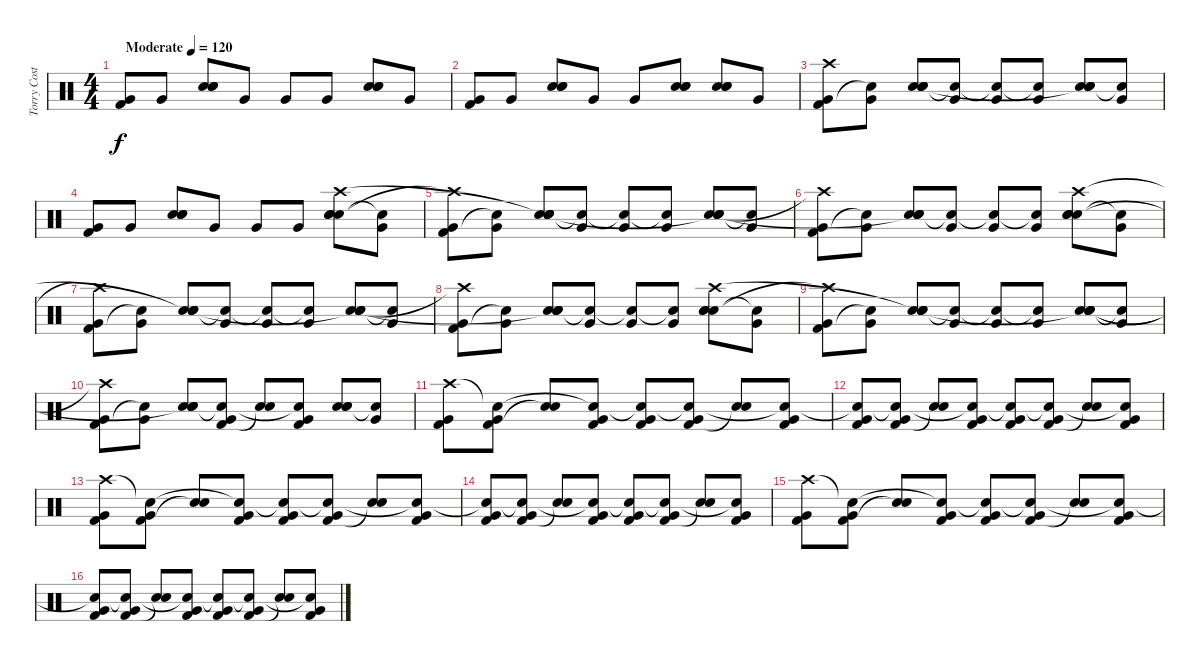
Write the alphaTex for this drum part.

\track ("Torry Costellano" "Torry Cost") {instrument percussion}
\staff {score}
\articulation defaults
\ts (4 4)
\tempo (120 "Moderate")
\clef neutral
\ks c
("Very Low Tom (hit)" "Kick (hit) 2").8{dy f} "Very Low Tom (hit)".8 ("Hand Clap (hit)" "Hand Clap (hit)" "Electric Snare (hit)").8 "Very Low Tom (hit)".8 "Very Low Tom (hit)".8 "Very Low Tom (hit)".8 ("Hand Clap (hit)" "Hand Clap (hit)" "Electric Snare (hit)").8 "Very Low Tom (hit)".8 |
("Very Low Tom (hit)" "Kick (hit) 2").8 "Very Low Tom (hit)".8 ("Hand Clap (hit)" "Hand Clap (hit)" "Electric Snare (hit)").8 "Very Low Tom (hit)".8 "Very Low Tom (hit)".8 ("Hand Clap (hit)" "Hand Clap (hit)" "Electric Snare (hit)").8 ("Hand Clap (hit)" "Hand Clap (hit)" "Electric Snare (hit)").8 "Very Low Tom (hit)".8 |
("Very Low Tom (hit)" "Kick (hit) 2" "Crash high (hit)").8 ("Very Low Tom (hit)" "Snare (hit)"{t}).8 ("Hand Clap (hit)" "Hand Clap (hit)" "Electric Snare (hit)" "Snare (hit)").8 ("Very Low Tom (hit)" "Snare (hit)"{t}).8 ("Very Low Tom (hit)" "Snare (hit)"{t}).8 ("Very Low Tom (hit)" "Snare (hit)"{t}).8 ("Hand Clap (hit)" "Hand Clap (hit)" "Electric Snare (hit)" "Snare (hit)"{t}).8 ("Very Low Tom (hit)" "Snare (hit)"{t}).8 |
("Very Low Tom (hit)" "Kick (hit) 2").8 "Very Low Tom (hit)".8 ("Hand Clap (hit)" "Hand Clap (hit)" "Electric Snare (hit)").8 "Very Low Tom (hit)".8 "Very Low Tom (hit)".8 "Very Low Tom (hit)".8 ("Hand Clap (hit)" "Hand Clap (hit)" "Electric Snare (hit)" "Crash high (hit)").8 ("Very Low Tom (hit)" "Snare (hit)"{t}).8 |
("Very Low Tom (hit)" "Kick (hit) 2" "Crash high (hit)"{t}).8 ("Very Low Tom (hit)" "Snare (hit)"{t}).8 ("Hand Clap (hit)" "Hand Clap (hit)" "Electric Snare (hit)" "Snare (hit)"{t}).8 ("Very Low Tom (hit)" "Snare (hit)"{t}).8 ("Very Low Tom (hit)" "Snare (hit)"{t}).8 ("Very Low Tom (hit)" "Snare (hit)"{t}).8 ("Hand Clap (hit)" "Hand Clap (hit)" "Electric Snare (hit)" "Snare (hit)"{t}).8 ("Very Low Tom (hit)" "Snare (hit)"{t}).8 |
("Very Low Tom (hit)" "Kick (hit) 2" "Crash high (hit)"{t}).8 ("Very Low Tom (hit)" "Snare (hit)"{t}).8 ("Hand Clap (hit)" "Hand Clap (hit)" "Electric Snare (hit)" "Snare (hit)"{t}).8 ("Very Low Tom (hit)" "Snare (hit)"{t}).8 ("Very Low Tom (hit)" "Snare (hit)"{t}).8 ("Very Low Tom (hit)" "Snare (hit)"{t}).8 ("Hand Clap (hit)" "Hand Clap (hit)" "Electric Snare (hit)" "Crash high (hit)").8 ("Very Low Tom (hit)" "Snare (hit)"{t}).8 |
("Very Low Tom (hit)" "Kick (hit) 2" "Crash high (hit)"{t}).8 ("Very Low Tom (hit)" "Snare (hit)"{t}).8 ("Hand Clap (hit)" "Hand Clap (hit)" "Electric Snare (hit)" "Snare (hit)"{t}).8 ("Very Low Tom (hit)" "Snare (hit)"{t}).8 ("Very Low Tom (hit)" "Snare (hit)"{t}).8 ("Very Low Tom (hit)" "Snare (hit)"{t}).8 ("Hand Clap (hit)" "Hand Clap (hit)" "Electric Snare (hit)" "Snare (hit)"{t}).8 ("Very Low Tom (hit)" "Snare (hit)"{t}).8 |
("Very Low Tom (hit)" "Kick (hit) 2" "Crash high (hit)"{t}).8 ("Very Low Tom (hit)" "Snare (hit)"{t}).8 ("Hand Clap (hit)" "Hand Clap (hit)" "Electric Snare (hit)" "Snare (hit)"{t}).8 ("Very Low Tom (hit)" "Snare (hit)"{t}).8 ("Very Low Tom (hit)" "Snare (hit)"{t}).8 ("Very Low Tom (hit)" "Snare (hit)"{t}).8 ("Hand Clap (hit)" "Hand Clap (hit)" "Electric Snare (hit)" "Crash high (hit)").8 ("Very Low Tom (hit)" "Snare (hit)"{t}).8 |
("Very Low Tom (hit)" "Kick (hit) 2" "Crash high (hit)"{t}).8 ("Very Low Tom (hit)" "Snare (hit)"{t}).8 ("Hand Clap (hit)" "Hand Clap (hit)" "Electric Snare (hit)" "Snare (hit)"{t}).8 ("Very Low Tom (hit)" "Snare (hit)"{t}).8 ("Very Low Tom (hit)" "Snare (hit)"{t}).8 ("Very Low Tom (hit)" "Snare (hit)"{t}).8 ("Hand Clap (hit)" "Hand Clap (hit)" "Electric Snare (hit)" "Snare (hit)"{t}).8 ("Very Low Tom (hit)" "Snare (hit)"{t}).8 |
("Very Low Tom (hit)" "Kick (hit) 2" "Crash high (hit)"{t}).8 ("Very Low Tom (hit)" "Snare (hit)"{t}).8 ("Hand Clap (hit)" "Hand Clap (hit)" "Electric Snare (hit)" "Snare (hit)"{t}).8 ("Very Low Tom (hit)" "Kick (hit) 2" "Snare (hit)"{t}).8 ("Electric Snare (hit)" "Snare (hit)"{t}).8 ("Very Low Tom (hit)" "Kick (hit) 2" "Snare (hit)"{t}).8 ("Hand Clap (hit)" "Hand Clap (hit)" "Electric Snare (hit)").8 ("Very Low Tom (hit)" "Snare (hit)"{t}).8 |
("Very Low Tom (hit)" "Kick (hit) 2" "Crash high (hit)").8 ("Very Low Tom (hit)" "Kick (hit) 2" "Snare (hit)"{t}).8 ("Electric Snare (hit)" "Snare (hit)"{t}).8 ("Very Low Tom (hit)" "Kick (hit) 2" "Snare (hit)"{t}).8 ("Very Low Tom (hit)" "Kick (hit) 2" "Snare (hit)"{t}).8 ("Very Low Tom (hit)" "Kick (hit) 2" "Snare (hit)"{t}).8 ("Electric Snare (hit)" "Snare (hit)"{t}).8 ("Very Low Tom (hit)" "Kick (hit) 2" "Snare (hit)"{t}).8 |
("Very Low Tom (hit)" "Kick (hit) 2" "Snare (hit)"{t}).8 ("Very Low Tom (hit)" "Kick (hit) 2" "Snare (hit)"{t}).8 ("Electric Snare (hit)" "Snare (hit)"{t}).8 ("Very Low Tom (hit)" "Kick (hit) 2" "Snare (hit)"{t}).8 ("Very Low Tom (hit)" "Kick (hit) 2" "Snare (hit)"{t}).8 ("Very Low Tom (hit)" "Kick (hit) 2" "Snare (hit)"{t}).8 ("Electric Snare (hit)" "Snare (hit)"{t}).8 ("Very Low Tom (hit)" "Kick (hit) 2" "Snare (hit)"{t}).8 |
("Very Low Tom (hit)" "Kick (hit) 2" "Crash high (hit)").8 ("Very Low Tom (hit)" "Kick (hit) 2" "Snare (hit)"{t}).8 ("Electric Snare (hit)" "Snare (hit)"{t}).8 ("Very Low Tom (hit)" "Kick (hit) 2" "Snare (hit)"{t}).8 ("Very Low Tom (hit)" "Kick (hit) 2" "Snare (hit)"{t}).8 ("Very Low Tom (hit)" "Kick (hit) 2" "Snare (hit)"{t}).8 ("Electric Snare (hit)" "Snare (hit)"{t}).8 ("Very Low Tom (hit)" "Kick (hit) 2" "Snare (hit)"{t}).8 |
("Very Low Tom (hit)" "Kick (hit) 2" "Snare (hit)"{t}).8 ("Very Low Tom (hit)" "Kick (hit) 2" "Snare (hit)"{t}).8 ("Electric Snare (hit)" "Snare (hit)"{t}).8 ("Very Low Tom (hit)" "Kick (hit) 2" "Snare (hit)"{t}).8 ("Very Low Tom (hit)" "Kick (hit) 2" "Snare (hit)"{t}).8 ("Very Low Tom (hit)" "Kick (hit) 2" "Snare (hit)"{t}).8 ("Electric Snare (hit)" "Snare (hit)"{t}).8 ("Very Low Tom (hit)" "Kick (hit) 2" "Snare (hit)"{t}).8 |
("Very Low Tom (hit)" "Kick (hit) 2" "Crash high (hit)").8 ("Very Low Tom (hit)" "Kick (hit) 2" "Snare (hit)"{t}).8 ("Electric Snare (hit)" "Snare (hit)"{t}).8 ("Very Low Tom (hit)" "Kick (hit) 2" "Snare (hit)"{t}).8 ("Very Low Tom (hit)" "Kick (hit) 2" "Snare (hit)"{t}).8 ("Very Low Tom (hit)" "Kick (hit) 2" "Snare (hit)"{t}).8 ("Electric Snare (hit)" "Snare (hit)"{t}).8 ("Very Low Tom (hit)" "Kick (hit) 2" "Snare (hit)"{t}).8 |
("Very Low Tom (hit)" "Kick (hit) 2" "Snare (hit)"{t}).8 ("Very Low Tom (hit)" "Kick (hit) 2" "Snare (hit)"{t}).8 ("Electric Snare (hit)" "Snare (hit)"{t}).8 ("Very Low Tom (hit)" "Kick (hit) 2" "Snare (hit)"{t}).8 ("Very Low Tom (hit)" "Kick (hit) 2" "Snare (hit)"{t}).8 ("Very Low Tom (hit)" "Kick (hit) 2" "Snare (hit)"{t}).8 ("Electric Snare (hit)" "Snare (hit)"{t}).8 ("Very Low Tom (hit)" "Kick (hit) 2" "Snare (hit)"{t}).8
